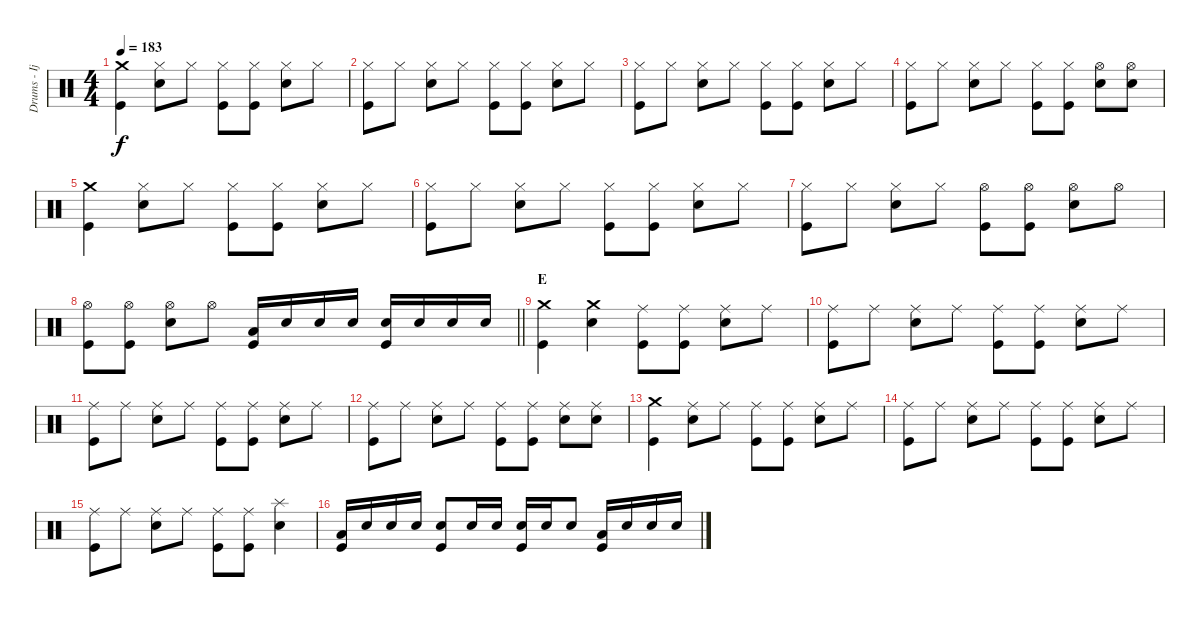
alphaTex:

\track ("Drums - Ijichi" "Drums - Ij") {instrument percussion}
\staff {score}
\articulation defaults
\ts (4 4)
\tempo 183
\clef neutral
\ks c
("Crash medium (hit)" "Kick (hit)").4{dy f} ("Hi-Hat (closed)" "Electric Snare (hit)").8 "Hi-Hat (closed)".8 ("Hi-Hat (closed)" "Kick (hit)").8 ("Hi-Hat (closed)" "Kick (hit)").8 ("Hi-Hat (closed)" "Electric Snare (hit)").8 "Hi-Hat (closed)".8 |
("Hi-Hat (closed)" "Kick (hit)").8 "Hi-Hat (closed)".8 ("Hi-Hat (closed)" "Electric Snare (hit)").8 "Hi-Hat (closed)".8 ("Hi-Hat (closed)" "Kick (hit)").8 ("Hi-Hat (closed)" "Kick (hit)").8 ("Hi-Hat (closed)" "Electric Snare (hit)").8 "Hi-Hat (closed)".8 |
("Hi-Hat (closed)" "Kick (hit)").8 "Hi-Hat (closed)".8 ("Hi-Hat (closed)" "Electric Snare (hit)").8 "Hi-Hat (closed)".8 ("Hi-Hat (closed)" "Kick (hit)").8 ("Hi-Hat (closed)" "Kick (hit)").8 ("Hi-Hat (closed)" "Electric Snare (hit)").8 "Hi-Hat (closed)".8 |
("Hi-Hat (closed)" "Kick (hit)").8 "Hi-Hat (closed)".8 ("Hi-Hat (closed)" "Electric Snare (hit)").8 "Hi-Hat (closed)".8 ("Hi-Hat (closed)" "Kick (hit)").8 ("Hi-Hat (closed)" "Kick (hit)").8 ("Hi-Hat (open)" "Electric Snare (hit)").8 ("Hi-Hat (open)" "Electric Snare (hit)").8 |
("Crash medium (hit)" "Kick (hit)").4 ("Hi-Hat (closed)" "Electric Snare (hit)").8 "Hi-Hat (closed)".8 ("Hi-Hat (closed)" "Kick (hit)").8 ("Hi-Hat (closed)" "Kick (hit)").8 ("Hi-Hat (closed)" "Electric Snare (hit)").8 "Hi-Hat (closed)".8 |
("Hi-Hat (closed)" "Kick (hit)").8 "Hi-Hat (closed)".8 ("Hi-Hat (closed)" "Electric Snare (hit)").8 "Hi-Hat (closed)".8 ("Hi-Hat (closed)" "Kick (hit)").8 ("Hi-Hat (closed)" "Kick (hit)").8 ("Hi-Hat (closed)" "Electric Snare (hit)").8 "Hi-Hat (closed)".8 |
("Hi-Hat (closed)" "Kick (hit)").8 "Hi-Hat (closed)".8 ("Hi-Hat (closed)" "Electric Snare (hit)").8 "Hi-Hat (closed)".8 ("Hi-Hat (open)" "Kick (hit)").8 ("Hi-Hat (open)" "Kick (hit)").8 ("Hi-Hat (open)" "Electric Snare (hit)").8 "Hi-Hat (open)".8 |
\barLineRight lightlight
("Hi-Hat (open)" "Kick (hit)").8 ("Hi-Hat (open)" "Kick (hit)").8 ("Hi-Hat (open)" "Electric Snare (hit)").8 "Hi-Hat (open)".8 ("Low Tom (hit)" "Kick (hit)").16 "Electric Snare (hit)".16 "Electric Snare (hit)".16 "Electric Snare (hit)".16 ("Electric Snare (hit)" "Kick (hit)").16 "Electric Snare (hit)".16 "Electric Snare (hit)".16 "Electric Snare (hit)".16 |
\section ("" "E")
("Crash medium (hit)" "Kick (hit)").4 ("Crash medium (hit)" "Electric Snare (hit)").4 ("Ride (middle)" "Kick (hit)").8 ("Ride (middle)" "Kick (hit)").8 ("Ride (middle)" "Electric Snare (hit)").8 "Ride (middle)".8 |
("Ride (middle)" "Kick (hit)").8 "Ride (middle)".8 ("Ride (middle)" "Electric Snare (hit)").8 "Ride (middle)".8 ("Ride (middle)" "Kick (hit)").8 ("Ride (middle)" "Kick (hit)").8 ("Ride (middle)" "Electric Snare (hit)").8 "Ride (middle)".8 |
("Ride (middle)" "Kick (hit)").8 "Ride (middle)".8 ("Ride (middle)" "Electric Snare (hit)").8 "Ride (middle)".8 ("Ride (middle)" "Kick (hit)").8 ("Ride (middle)" "Kick (hit)").8 ("Ride (middle)" "Electric Snare (hit)").8 "Ride (middle)".8 |
("Ride (middle)" "Kick (hit)").8 "Ride (middle)".8 ("Ride (middle)" "Electric Snare (hit)").8 "Ride (middle)".8 ("Ride (middle)" "Kick (hit)").8 ("Ride (middle)" "Kick (hit)").8 ("Ride (middle)" "Electric Snare (hit)").8 ("Ride (middle)" "Electric Snare (hit)").8 |
("Crash medium (hit)" "Kick (hit)").4 ("Ride (middle)" "Electric Snare (hit)").8 "Ride (middle)".8 ("Ride (middle)" "Kick (hit)").8 ("Ride (middle)" "Kick (hit)").8 ("Ride (middle)" "Electric Snare (hit)").8 "Ride (middle)".8 |
("Ride (middle)" "Kick (hit)").8 "Ride (middle)".8 ("Ride (middle)" "Electric Snare (hit)").8 "Ride (middle)".8 ("Ride (middle)" "Kick (hit)").8 ("Ride (middle)" "Kick (hit)").8 ("Ride (middle)" "Electric Snare (hit)").8 "Ride (middle)".8 |
("Ride (middle)" "Kick (hit)").8 "Ride (middle)".8 ("Ride (middle)" "Electric Snare (hit)").8 "Ride (middle)".8 ("Ride (middle)" "Kick (hit)").8 ("Ride (middle)" "Kick (hit)").8 ("Splash (hit)" "Electric Snare (hit)").4 |
("Low Tom (hit)" "Kick (hit)").16 "Electric Snare (hit)".16 "Electric Snare (hit)".16 "Electric Snare (hit)".16 ("Electric Snare (hit)" "Kick (hit)").8 "Electric Snare (hit)".16 "Electric Snare (hit)".16 ("Electric Snare (hit)" "Kick (hit)").16 "Electric Snare (hit)".16 "Electric Snare (hit)".8 ("Low Tom (hit)" "Kick (hit)").16 "Electric Snare (hit)".16 "Electric Snare (hit)".16 "Electric Snare (hit)".16
